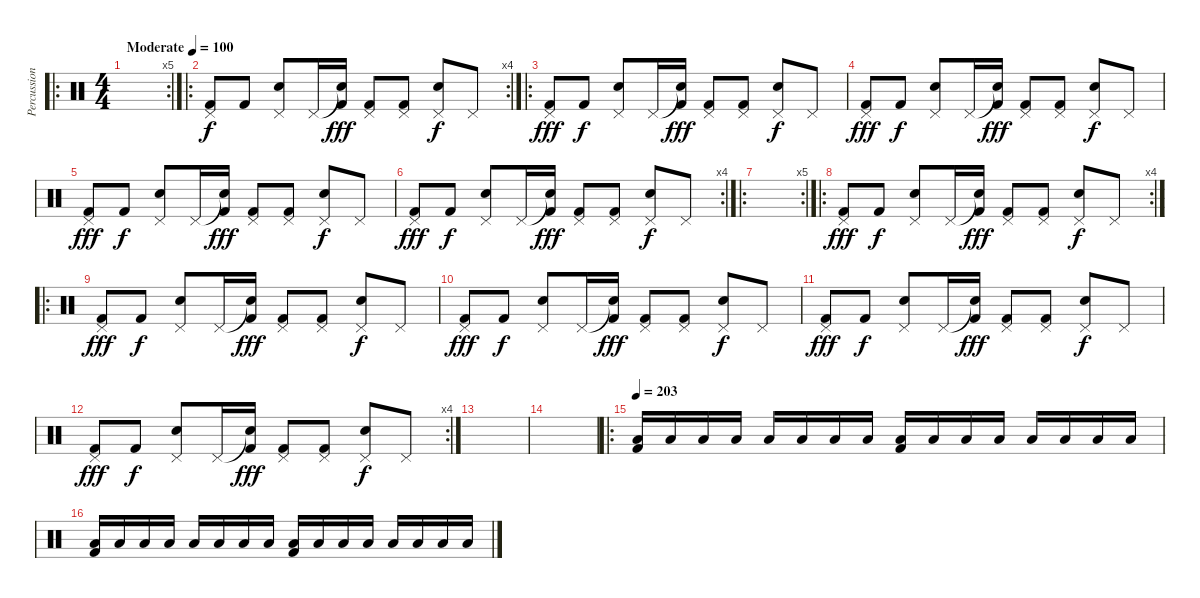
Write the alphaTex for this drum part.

\track ("Percussion" "Percussion") {instrument percussion}
\staff {score}
\articulation defaults
\ro
\rc 5
\ts (4 4)
\tempo (100 "Moderate")
\clef neutral
\ks c
|
\ro
\rc 4
("Pedal Hi-Hat (hit)" "Kick (hit) 2").8 "Kick (hit) 2".8{dy f} ("Pedal Hi-Hat (hit)" "Snare (hit) 2").8 "Pedal Hi-Hat (hit)".16 ("Snare (hit)"{t} "Kick (hit) 2").16{dy fff} ("Pedal Hi-Hat (hit)" "Kick (hit) 2").8 ("Pedal Hi-Hat (hit)" "Kick (hit) 2").8 ("Pedal Hi-Hat (hit)" "Snare (hit) 2").8{dy f} "Pedal Hi-Hat (hit)".8 |
\ro
("Pedal Hi-Hat (hit)" "Kick (hit) 2").8{dy fff} "Kick (hit) 2".8{dy f} ("Pedal Hi-Hat (hit)" "Snare (hit) 2").8 "Pedal Hi-Hat (hit)".16 ("Snare (hit)"{t} "Kick (hit) 2").16{dy fff} ("Pedal Hi-Hat (hit)" "Kick (hit) 2").8 ("Pedal Hi-Hat (hit)" "Kick (hit) 2").8 ("Pedal Hi-Hat (hit)" "Snare (hit) 2").8{dy f} "Pedal Hi-Hat (hit)".8 |
("Pedal Hi-Hat (hit)" "Kick (hit) 2").8{dy fff} "Kick (hit) 2".8{dy f} ("Pedal Hi-Hat (hit)" "Snare (hit) 2").8 "Pedal Hi-Hat (hit)".16 ("Snare (hit)"{t} "Kick (hit) 2").16{dy fff} ("Pedal Hi-Hat (hit)" "Kick (hit) 2").8 ("Pedal Hi-Hat (hit)" "Kick (hit) 2").8 ("Pedal Hi-Hat (hit)" "Snare (hit) 2").8{dy f} "Pedal Hi-Hat (hit)".8 |
("Pedal Hi-Hat (hit)" "Kick (hit) 2").8{dy fff} "Kick (hit) 2".8{dy f} ("Pedal Hi-Hat (hit)" "Snare (hit) 2").8 "Pedal Hi-Hat (hit)".16 ("Snare (hit)"{t} "Kick (hit) 2").16{dy fff} ("Pedal Hi-Hat (hit)" "Kick (hit) 2").8 ("Pedal Hi-Hat (hit)" "Kick (hit) 2").8 ("Pedal Hi-Hat (hit)" "Snare (hit) 2").8{dy f} "Pedal Hi-Hat (hit)".8 |
\rc 4
("Pedal Hi-Hat (hit)" "Kick (hit) 2").8{dy fff} "Kick (hit) 2".8{dy f} ("Pedal Hi-Hat (hit)" "Snare (hit) 2").8 "Pedal Hi-Hat (hit)".16 ("Snare (hit)"{t} "Kick (hit) 2").16{dy fff} ("Pedal Hi-Hat (hit)" "Kick (hit) 2").8 ("Pedal Hi-Hat (hit)" "Kick (hit) 2").8 ("Pedal Hi-Hat (hit)" "Snare (hit) 2").8{dy f} "Pedal Hi-Hat (hit)".8 |
\ro
\rc 5
|
\ro
\rc 4
("Pedal Hi-Hat (hit)" "Kick (hit) 2").8{dy fff} "Kick (hit) 2".8{dy f} ("Pedal Hi-Hat (hit)" "Snare (hit) 2").8 "Pedal Hi-Hat (hit)".16 ("Snare (hit)"{t} "Kick (hit) 2").16{dy fff} ("Pedal Hi-Hat (hit)" "Kick (hit) 2").8 ("Pedal Hi-Hat (hit)" "Kick (hit) 2").8 ("Pedal Hi-Hat (hit)" "Snare (hit) 2").8{dy f} "Pedal Hi-Hat (hit)".8 |
\ro
("Pedal Hi-Hat (hit)" "Kick (hit) 2").8{dy fff} "Kick (hit) 2".8{dy f} ("Pedal Hi-Hat (hit)" "Snare (hit) 2").8 "Pedal Hi-Hat (hit)".16 ("Snare (hit)"{t} "Kick (hit) 2").16{dy fff} ("Pedal Hi-Hat (hit)" "Kick (hit) 2").8 ("Pedal Hi-Hat (hit)" "Kick (hit) 2").8 ("Pedal Hi-Hat (hit)" "Snare (hit) 2").8{dy f} "Pedal Hi-Hat (hit)".8 |
("Pedal Hi-Hat (hit)" "Kick (hit) 2").8{dy fff} "Kick (hit) 2".8{dy f} ("Pedal Hi-Hat (hit)" "Snare (hit) 2").8 "Pedal Hi-Hat (hit)".16 ("Snare (hit)"{t} "Kick (hit) 2").16{dy fff} ("Pedal Hi-Hat (hit)" "Kick (hit) 2").8 ("Pedal Hi-Hat (hit)" "Kick (hit) 2").8 ("Pedal Hi-Hat (hit)" "Snare (hit) 2").8{dy f} "Pedal Hi-Hat (hit)".8 |
("Pedal Hi-Hat (hit)" "Kick (hit) 2").8{dy fff} "Kick (hit) 2".8{dy f} ("Pedal Hi-Hat (hit)" "Snare (hit) 2").8 "Pedal Hi-Hat (hit)".16 ("Snare (hit)"{t} "Kick (hit) 2").16{dy fff} ("Pedal Hi-Hat (hit)" "Kick (hit) 2").8 ("Pedal Hi-Hat (hit)" "Kick (hit) 2").8 ("Pedal Hi-Hat (hit)" "Snare (hit) 2").8{dy f} "Pedal Hi-Hat (hit)".8 |
\rc 4
("Pedal Hi-Hat (hit)" "Kick (hit) 2").8{dy fff} "Kick (hit) 2".8{dy f} ("Pedal Hi-Hat (hit)" "Snare (hit) 2").8 "Pedal Hi-Hat (hit)".16 ("Snare (hit)"{t} "Kick (hit) 2").16{dy fff} ("Pedal Hi-Hat (hit)" "Kick (hit) 2").8 ("Pedal Hi-Hat (hit)" "Kick (hit) 2").8 ("Pedal Hi-Hat (hit)" "Snare (hit) 2").8{dy f} "Pedal Hi-Hat (hit)".8 |
|
|
\ro
\tempo 203
("Low Floor Tom (hit)" "Kick (hit) 2").16 "Low Floor Tom (hit)".16 "Low Floor Tom (hit)".16 "Low Floor Tom (hit)".16 "Low Floor Tom (hit)".16 "Low Floor Tom (hit)".16 "Low Floor Tom (hit)".16 "Low Floor Tom (hit)".16 ("Low Floor Tom (hit)" "Kick (hit) 2").16 "Low Floor Tom (hit)".16 "Low Floor Tom (hit)".16 "Low Floor Tom (hit)".16 "Low Floor Tom (hit)".16 "Low Floor Tom (hit)".16 "Low Floor Tom (hit)".16 "Low Floor Tom (hit)".16 |
("Low Floor Tom (hit)" "Kick (hit) 2").16 "Low Floor Tom (hit)".16 "Low Floor Tom (hit)".16 "Low Floor Tom (hit)".16 "Low Floor Tom (hit)".16 "Low Floor Tom (hit)".16 "Low Floor Tom (hit)".16 "Low Floor Tom (hit)".16 ("Low Floor Tom (hit)" "Kick (hit) 2").16 "Low Floor Tom (hit)".16 "Low Floor Tom (hit)".16 "Low Floor Tom (hit)".16 "Low Floor Tom (hit)".16 "Low Floor Tom (hit)".16 "Low Floor Tom (hit)".16 "Low Floor Tom (hit)".16
